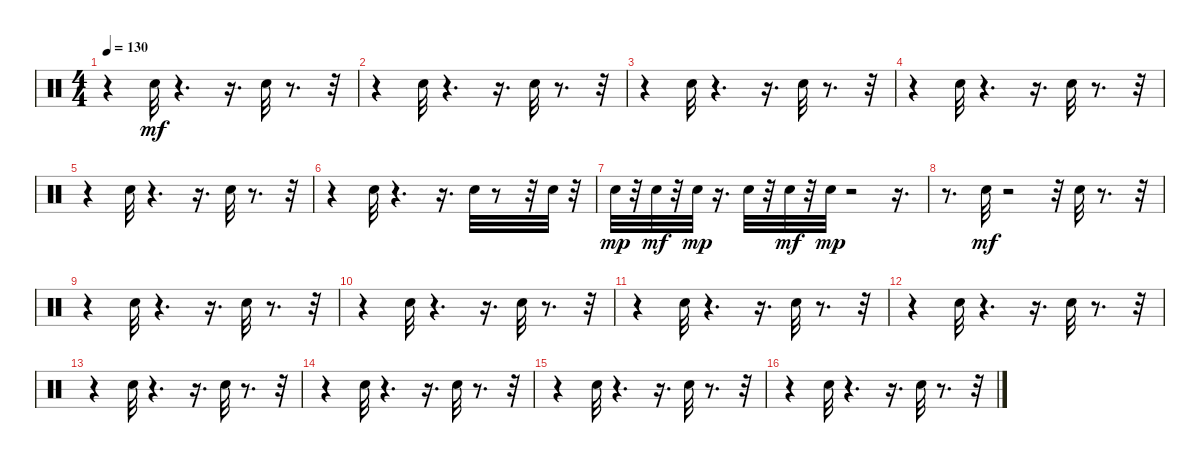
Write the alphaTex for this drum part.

\track "" {instrument percussion}
\staff {score}
\articulation defaults
\ts (4 4)
\tempo 130
\clef neutral
\ks c
r.4{dy mf} "Electric Snare (hit)".32 r.4{d} r.16{d} "Electric Snare (hit)".32 r.8{d} r.32 |
r.4 "Electric Snare (hit)".32 r.4{d} r.16{d} "Electric Snare (hit)".32 r.8{d} r.32 |
r.4 "Electric Snare (hit)".32 r.4{d} r.16{d} "Electric Snare (hit)".32 r.8{d} r.32 |
r.4 "Electric Snare (hit)".32 r.4{d} r.16{d} "Electric Snare (hit)".32 r.8{d} r.32 |
r.4 "Electric Snare (hit)".32 r.4{d} r.16{d} "Electric Snare (hit)".32 r.8{d} r.32 |
r.4 "Electric Snare (hit)".32 r.4{d} r.16{d} "Electric Snare (hit)".32 r.8 r.32 "Electric Snare (hit)".32 r.32 |
"Electric Snare (hit)".32{dy mp} r.32 "Electric Snare (hit)".32{dy mf} r.32 "Electric Snare (hit)".32{dy mp} r.16{d} "Electric Snare (hit)".32 r.32 "Electric Snare (hit)".32{dy mf} r.32 "Electric Snare (hit)".32{dy mp} r.2 r.16{d} |
r.8{d} "Electric Snare (hit)".32{dy mf} r.2 r.32 "Electric Snare (hit)".32 r.8{d} r.32 |
r.4 "Electric Snare (hit)".32 r.4{d} r.16{d} "Electric Snare (hit)".32 r.8{d} r.32 |
r.4 "Electric Snare (hit)".32 r.4{d} r.16{d} "Electric Snare (hit)".32 r.8{d} r.32 |
r.4 "Electric Snare (hit)".32 r.4{d} r.16{d} "Electric Snare (hit)".32 r.8{d} r.32 |
r.4 "Electric Snare (hit)".32 r.4{d} r.16{d} "Electric Snare (hit)".32 r.8{d} r.32 |
r.4 "Electric Snare (hit)".32 r.4{d} r.16{d} "Electric Snare (hit)".32 r.8{d} r.32 |
r.4 "Electric Snare (hit)".32 r.4{d} r.16{d} "Electric Snare (hit)".32 r.8{d} r.32 |
r.4 "Electric Snare (hit)".32 r.4{d} r.16{d} "Electric Snare (hit)".32 r.8{d} r.32 |
r.4 "Electric Snare (hit)".32 r.4{d} r.16{d} "Electric Snare (hit)".32 r.8{d} r.32
